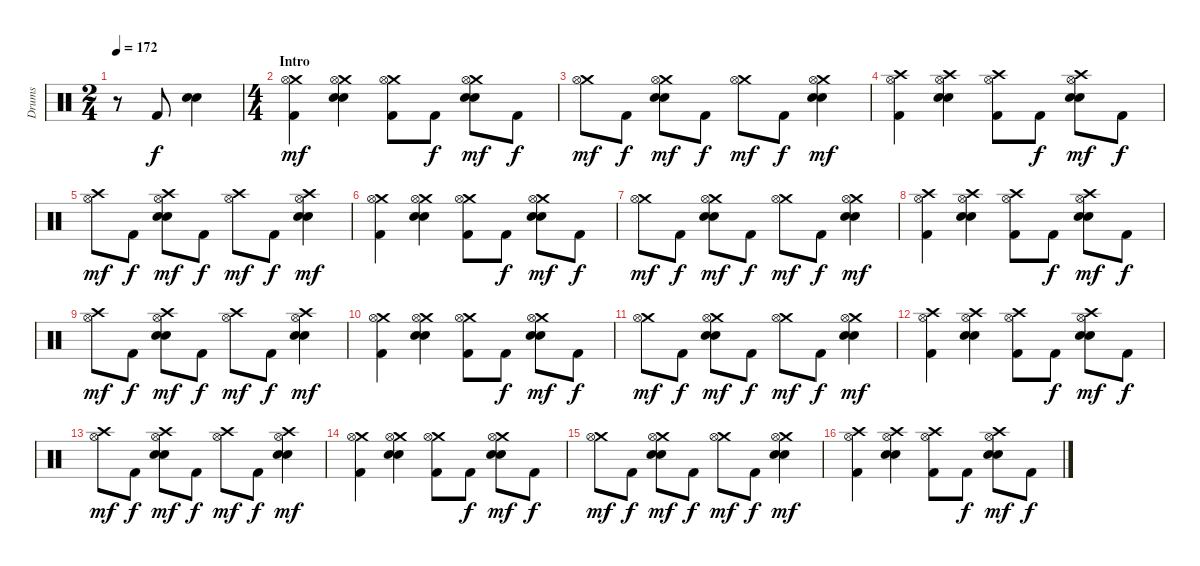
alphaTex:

\track ("Drums" "Drums") {instrument percussion}
\staff {score}
\articulation defaults
\ts (2 4)
\tempo 172
\clef neutral
\ks c
r.8{dy f} "Kick (hit) 2".8 ("Electric Snare (hit)" "Snare (hit) 2").4 |
\ts (4 4)
\section ("" "Intro")
("Crash medium (hit)" "Hi-Hat (open)" "Kick (hit) 2").4{dy mf} ("Crash medium (hit)" "Hi-Hat (open)" "Electric Snare (hit)" "Snare (hit) 2").4 ("Crash medium (hit)" "Hi-Hat (open)" "Kick (hit) 2").8 "Kick (hit) 2".8{dy f} ("Crash medium (hit)" "Hi-Hat (open)" "Electric Snare (hit)" "Snare (hit) 2").8{dy mf} "Kick (hit) 2".8{dy f} |
("Crash medium (hit)" "Hi-Hat (open)").8{dy mf} "Kick (hit) 2".8{dy f} ("Crash medium (hit)" "Hi-Hat (open)" "Electric Snare (hit)" "Snare (hit) 2").8{dy mf} "Kick (hit) 2".8{dy f} ("Crash medium (hit)" "Hi-Hat (open)").8{dy mf} "Kick (hit) 2".8{dy f} ("Crash medium (hit)" "Hi-Hat (open)" "Electric Snare (hit)" "Snare (hit) 2").4{dy mf} |
("Crash high (hit)" "Hi-Hat (open)" "Kick (hit) 2").4 ("Crash high (hit)" "Hi-Hat (open)" "Electric Snare (hit)" "Snare (hit) 2").4 ("Crash high (hit)" "Hi-Hat (open)" "Kick (hit) 2").8 "Kick (hit) 2".8{dy f} ("Crash high (hit)" "Hi-Hat (open)" "Electric Snare (hit)" "Snare (hit) 2").8{dy mf} "Kick (hit) 2".8{dy f} |
("Crash high (hit)" "Hi-Hat (open)").8{dy mf} "Kick (hit) 2".8{dy f} ("Crash high (hit)" "Hi-Hat (open)" "Electric Snare (hit)" "Snare (hit) 2").8{dy mf} "Kick (hit) 2".8{dy f} ("Crash high (hit)" "Hi-Hat (open)").8{dy mf} "Kick (hit) 2".8{dy f} ("Crash high (hit)" "Hi-Hat (open)" "Electric Snare (hit)" "Snare (hit) 2").4{dy mf} |
("Crash medium (hit)" "Hi-Hat (open)" "Kick (hit) 2").4 ("Crash medium (hit)" "Hi-Hat (open)" "Electric Snare (hit)" "Snare (hit) 2").4 ("Crash medium (hit)" "Hi-Hat (open)" "Kick (hit) 2").8 "Kick (hit) 2".8{dy f} ("Crash medium (hit)" "Hi-Hat (open)" "Electric Snare (hit)" "Snare (hit) 2").8{dy mf} "Kick (hit) 2".8{dy f} |
("Crash medium (hit)" "Hi-Hat (open)").8{dy mf} "Kick (hit) 2".8{dy f} ("Crash medium (hit)" "Hi-Hat (open)" "Electric Snare (hit)" "Snare (hit) 2").8{dy mf} "Kick (hit) 2".8{dy f} ("Crash medium (hit)" "Hi-Hat (open)").8{dy mf} "Kick (hit) 2".8{dy f} ("Crash medium (hit)" "Hi-Hat (open)" "Electric Snare (hit)" "Snare (hit) 2").4{dy mf} |
("Crash high (hit)" "Hi-Hat (open)" "Kick (hit) 2").4 ("Crash high (hit)" "Hi-Hat (open)" "Electric Snare (hit)" "Snare (hit) 2").4 ("Crash high (hit)" "Hi-Hat (open)" "Kick (hit) 2").8 "Kick (hit) 2".8{dy f} ("Crash high (hit)" "Hi-Hat (open)" "Electric Snare (hit)" "Snare (hit) 2").8{dy mf} "Kick (hit) 2".8{dy f} |
("Crash high (hit)" "Hi-Hat (open)").8{dy mf} "Kick (hit) 2".8{dy f} ("Crash high (hit)" "Hi-Hat (open)" "Electric Snare (hit)" "Snare (hit) 2").8{dy mf} "Kick (hit) 2".8{dy f} ("Crash high (hit)" "Hi-Hat (open)").8{dy mf} "Kick (hit) 2".8{dy f} ("Crash high (hit)" "Hi-Hat (open)" "Electric Snare (hit)" "Snare (hit) 2").4{dy mf} |
("Crash medium (hit)" "Hi-Hat (open)" "Kick (hit) 2").4 ("Crash medium (hit)" "Hi-Hat (open)" "Electric Snare (hit)" "Snare (hit) 2").4 ("Crash medium (hit)" "Hi-Hat (open)" "Kick (hit) 2").8 "Kick (hit) 2".8{dy f} ("Crash medium (hit)" "Hi-Hat (open)" "Electric Snare (hit)" "Snare (hit) 2").8{dy mf} "Kick (hit) 2".8{dy f} |
("Crash medium (hit)" "Hi-Hat (open)").8{dy mf} "Kick (hit) 2".8{dy f} ("Crash medium (hit)" "Hi-Hat (open)" "Electric Snare (hit)" "Snare (hit) 2").8{dy mf} "Kick (hit) 2".8{dy f} ("Crash medium (hit)" "Hi-Hat (open)").8{dy mf} "Kick (hit) 2".8{dy f} ("Crash medium (hit)" "Hi-Hat (open)" "Electric Snare (hit)" "Snare (hit) 2").4{dy mf} |
("Crash high (hit)" "Hi-Hat (open)" "Kick (hit) 2").4 ("Crash high (hit)" "Hi-Hat (open)" "Electric Snare (hit)" "Snare (hit) 2").4 ("Crash high (hit)" "Hi-Hat (open)" "Kick (hit) 2").8 "Kick (hit) 2".8{dy f} ("Crash high (hit)" "Hi-Hat (open)" "Electric Snare (hit)" "Snare (hit) 2").8{dy mf} "Kick (hit) 2".8{dy f} |
("Crash high (hit)" "Hi-Hat (open)").8{dy mf} "Kick (hit) 2".8{dy f} ("Crash high (hit)" "Hi-Hat (open)" "Electric Snare (hit)" "Snare (hit) 2").8{dy mf} "Kick (hit) 2".8{dy f} ("Crash high (hit)" "Hi-Hat (open)").8{dy mf} "Kick (hit) 2".8{dy f} ("Crash high (hit)" "Hi-Hat (open)" "Electric Snare (hit)" "Snare (hit) 2").4{dy mf} |
("Crash medium (hit)" "Hi-Hat (open)" "Kick (hit) 2").4 ("Crash medium (hit)" "Hi-Hat (open)" "Electric Snare (hit)" "Snare (hit) 2").4 ("Crash medium (hit)" "Hi-Hat (open)" "Kick (hit) 2").8 "Kick (hit) 2".8{dy f} ("Crash medium (hit)" "Hi-Hat (open)" "Electric Snare (hit)" "Snare (hit) 2").8{dy mf} "Kick (hit) 2".8{dy f} |
("Crash medium (hit)" "Hi-Hat (open)").8{dy mf} "Kick (hit) 2".8{dy f} ("Crash medium (hit)" "Hi-Hat (open)" "Electric Snare (hit)" "Snare (hit) 2").8{dy mf} "Kick (hit) 2".8{dy f} ("Crash medium (hit)" "Hi-Hat (open)").8{dy mf} "Kick (hit) 2".8{dy f} ("Crash medium (hit)" "Hi-Hat (open)" "Electric Snare (hit)" "Snare (hit) 2").4{dy mf} |
("Crash high (hit)" "Hi-Hat (open)" "Kick (hit) 2").4 ("Crash high (hit)" "Hi-Hat (open)" "Electric Snare (hit)" "Snare (hit) 2").4 ("Crash high (hit)" "Hi-Hat (open)" "Kick (hit) 2").8 "Kick (hit) 2".8{dy f} ("Crash high (hit)" "Hi-Hat (open)" "Electric Snare (hit)" "Snare (hit) 2").8{dy mf} "Kick (hit) 2".8{dy f}
